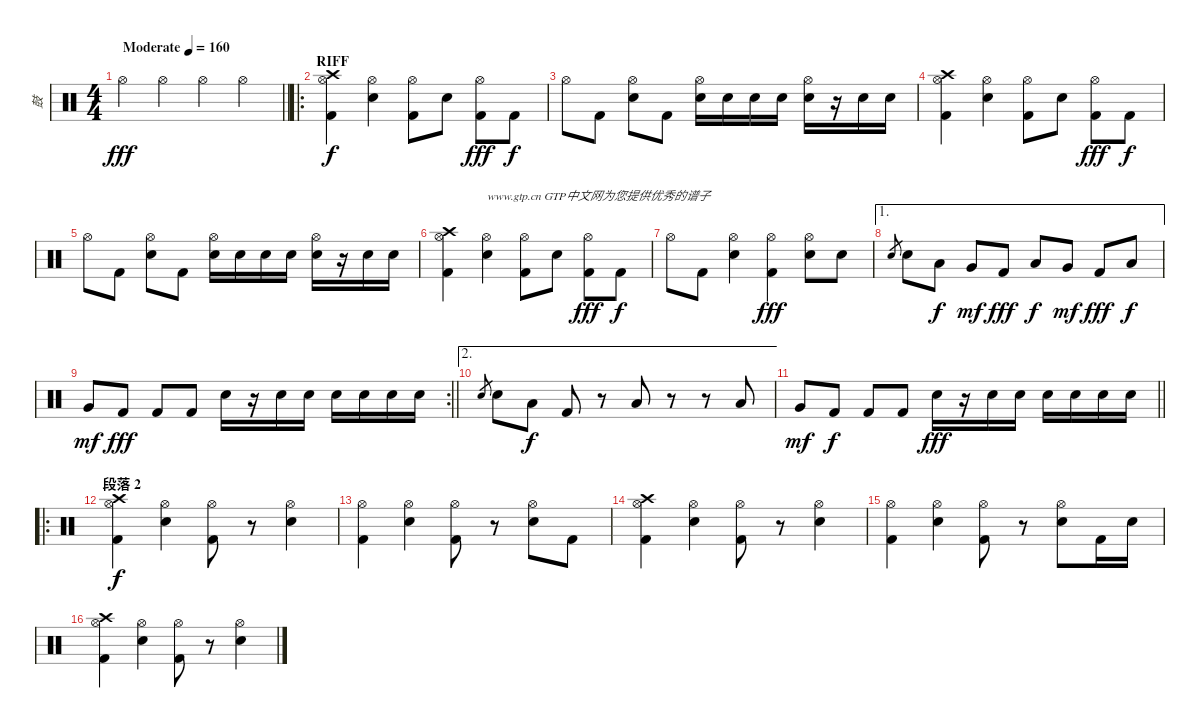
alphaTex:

\track ("鼓" "鼓") {instrument percussion}
\staff {score}
\articulation defaults
\ts (4 4)
\tempo (160 "Moderate")
\clef neutral
\barLineRight lightlight
\ks c "Hi-Hat (open)".4{dy fff} "Hi-Hat (open)".4 "Hi-Hat (open)".4 "Hi-Hat (open)".4
|
\ro
\section ("" "RIFF")
("Crash high (hit)" "Hi-Hat (open)" "Kick (hit) 2").4{dy f} ("Hi-Hat (open)" "Electric Snare (hit)").4 ("Hi-Hat (open)" "Kick (hit) 2").8 "Electric Snare (hit)".8 ("Hi-Hat (open)" "Kick (hit) 2").8{dy fff} "Kick (hit) 2".8{dy f} |
"Hi-Hat (open)".8 "Kick (hit) 2".8 ("Hi-Hat (open)" "Electric Snare (hit)").8 "Kick (hit) 2".8 ("Hi-Hat (open)" "Electric Snare (hit)").16 "Electric Snare (hit)".16 "Electric Snare (hit)".16 "Electric Snare (hit)".16 ("Hi-Hat (open)" "Electric Snare (hit)").16 r.16 "Electric Snare (hit)".16 "Electric Snare (hit)".16 |
("Crash high (hit)" "Hi-Hat (open)" "Kick (hit) 2").4 ("Hi-Hat (open)" "Electric Snare (hit)").4 ("Hi-Hat (open)" "Kick (hit) 2").8 "Electric Snare (hit)".8 ("Hi-Hat (open)" "Kick (hit) 2").8{dy fff} "Kick (hit) 2".8{dy f} |
"Hi-Hat (open)".8 "Kick (hit) 2".8 ("Hi-Hat (open)" "Electric Snare (hit)").8 "Kick (hit) 2".8 ("Hi-Hat (open)" "Electric Snare (hit)").16 "Electric Snare (hit)".16 "Electric Snare (hit)".16 "Electric Snare (hit)".16 ("Hi-Hat (open)" "Electric Snare (hit)").16 r.16 "Electric Snare (hit)".16 "Electric Snare (hit)".16 |
("Crash high (hit)" "Hi-Hat (open)" "Kick (hit) 2").4 ("Hi-Hat (open)" "Electric Snare (hit)").4{txt "www.gtp.cn GTP中文网为您提供优秀的谱子"} ("Hi-Hat (open)" "Kick (hit) 2").8 "Electric Snare (hit)".8 ("Hi-Hat (open)" "Kick (hit) 2").8{dy fff} "Kick (hit) 2".8{dy f} |
"Hi-Hat (open)".8 "Kick (hit) 2".8 ("Hi-Hat (open)" "Electric Snare (hit)").4 ("Hi-Hat (open)" "Kick (hit) 2").4{dy fff} ("Hi-Hat (open)" "Electric Snare (hit)").8 "Electric Snare (hit)".8 |
\ae 1 "Electric Snare (hit)".8{gr} "Electric Snare (hit)".8 "Low Tom (hit)".8{dy f} "Very Low Tom (hit)".8{dy mf} "Kick (hit) 2".8{dy fff} "Low Tom (hit)".8{dy f} "Very Low Tom (hit)".8{dy mf} "Kick (hit) 2".8{dy fff} "Low Tom (hit)".8{dy f}
|
\rc 2
\barLineRight lightlight "Very Low Tom (hit)".8{dy mf} "Kick (hit) 2".8{dy fff} "Kick (hit) 2".8 "Kick (hit) 2".8 "Electric Snare (hit)".16
r.16 "Electric Snare (hit)".16 "Electric Snare (hit)".16 "Electric Snare (hit)".16 "Electric Snare (hit)".16 "Electric Snare (hit)".16 "Electric Snare (hit)".16 |
\ae 2 "Electric Snare (hit)".8{gr} "Electric Snare (hit)".8 "Low Tom (hit)".8{dy f} "Kick (hit) 2".8
r.8 "Low Tom (hit)".8 r.8 r.8 "Low Tom (hit)".8 |
\barLineRight lightlight "Very Low Tom (hit)".8{dy mf} "Kick (hit) 2".8{dy f} "Kick (hit) 2".8 "Kick (hit) 2".8 "Electric Snare (hit)".16{dy fff}
r.16 "Electric Snare (hit)".16 "Electric Snare (hit)".16 "Electric Snare (hit)".16 "Electric Snare (hit)".16 "Electric Snare (hit)".16 "Electric Snare (hit)".16 |
\ro
\section ("" "段落 2")
("Crash high (hit)" "Hi-Hat (open)" "Kick (hit) 2").4{dy f} ("Hi-Hat (open)" "Electric Snare (hit)").4 ("Hi-Hat (open)" "Kick (hit) 2").8 r.8 ("Hi-Hat (open)" "Electric Snare (hit)").4 |
("Hi-Hat (open)" "Kick (hit) 2").4 ("Hi-Hat (open)" "Electric Snare (hit)").4 ("Hi-Hat (open)" "Kick (hit) 2").8 r.8 ("Hi-Hat (open)" "Electric Snare (hit)").8 "Kick (hit) 2".8 |
("Crash high (hit)" "Hi-Hat (open)" "Kick (hit) 2").4 ("Hi-Hat (open)" "Electric Snare (hit)").4 ("Hi-Hat (open)" "Kick (hit) 2").8 r.8 ("Hi-Hat (open)" "Electric Snare (hit)").4 |
("Hi-Hat (open)" "Kick (hit) 2").4 ("Hi-Hat (open)" "Electric Snare (hit)").4 ("Hi-Hat (open)" "Kick (hit) 2").8 r.8 ("Hi-Hat (open)" "Electric Snare (hit)").8 "Kick (hit) 2".16 "Electric Snare (hit)".16 |
("Crash high (hit)" "Hi-Hat (open)" "Kick (hit) 2").4 ("Hi-Hat (open)" "Electric Snare (hit)").4 ("Hi-Hat (open)" "Kick (hit) 2").8 r.8 ("Hi-Hat (open)" "Electric Snare (hit)").4
